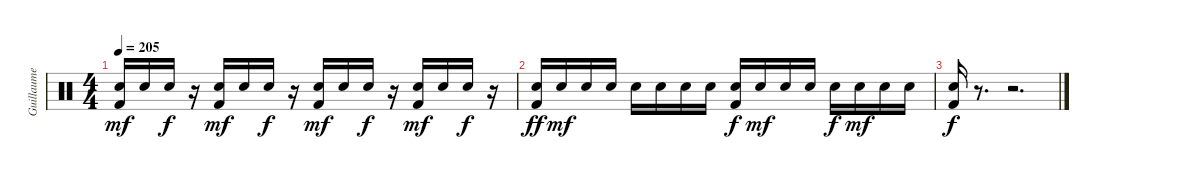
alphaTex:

\track ("Guillaume" "Guillaume") {instrument percussion}
\staff {score}
\articulation defaults
\ts (4 4)
\tempo 205
\clef neutral
\ks c
("Snare (hit) 2" "Kick (hit) 2").16{dy mf} "Snare (hit) 2".16 "Snare (hit) 2".16{dy f} r.16 ("Snare (hit) 2" "Kick (hit) 2").16{dy mf} "Snare (hit) 2".16 "Snare (hit) 2".16{dy f} r.16 ("Snare (hit) 2" "Kick (hit) 2").16{dy mf} "Snare (hit) 2".16 "Snare (hit) 2".16{dy f} r.16 ("Snare (hit) 2" "Kick (hit) 2").16{dy mf} "Snare (hit) 2".16 "Snare (hit) 2".16{dy f} r.16 |
("Kick (hit) 2" "Snare (hit) 2").16{dy ff} "Snare (hit) 2".16{dy mf} "Snare (hit) 2".16 "Snare (hit) 2".16 "Snare (hit) 2".16 "Snare (hit) 2".16 "Snare (hit) 2".16 "Snare (hit) 2".16 ("Snare (hit) 2" "Kick (hit) 2").16{dy f} "Snare (hit) 2".16{dy mf} "Snare (hit) 2".16 "Snare (hit) 2".16 "Snare (hit) 2".16{dy f} "Snare (hit) 2".16{dy mf} "Snare (hit) 2".16 "Snare (hit) 2".16 |
("Kick (hit) 2" "Snare (hit) 2").16{dy f} r.8{d} r.2{d}
